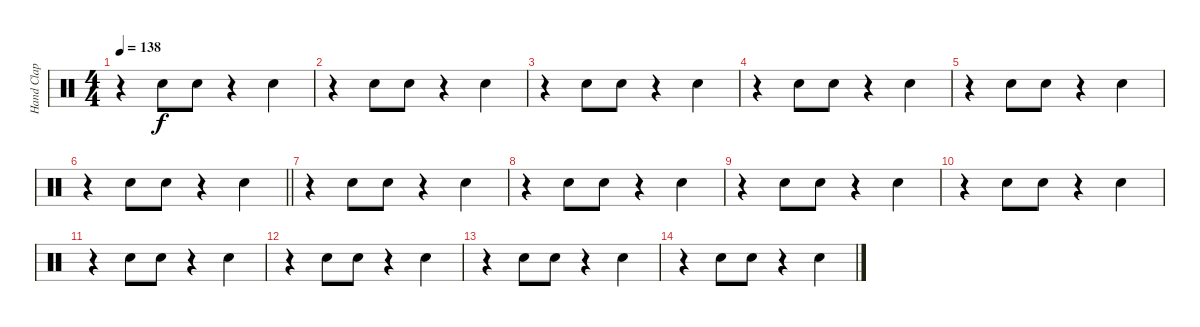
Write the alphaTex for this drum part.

\track ("Hand Clap" "Hand Clap") {instrument percussion}
\staff {score}
\articulation defaults
\ts (4 4)
\tempo 138
\clef neutral
\ks c
r.4{dy f} "Hand Clap (hit)".8 "Hand Clap (hit)".8 r.4 "Hand Clap (hit)".4 |
r.4 "Hand Clap (hit)".8 "Hand Clap (hit)".8 r.4 "Hand Clap (hit)".4 |
r.4 "Hand Clap (hit)".8 "Hand Clap (hit)".8 r.4 "Hand Clap (hit)".4 |
r.4 "Hand Clap (hit)".8 "Hand Clap (hit)".8 r.4 "Hand Clap (hit)".4 |
r.4 "Hand Clap (hit)".8 "Hand Clap (hit)".8 r.4 "Hand Clap (hit)".4 |
\barLineRight lightlight
r.4 "Hand Clap (hit)".8 "Hand Clap (hit)".8 r.4 "Hand Clap (hit)".4 |
r.4 "Hand Clap (hit)".8 "Hand Clap (hit)".8 r.4 "Hand Clap (hit)".4 |
r.4 "Hand Clap (hit)".8 "Hand Clap (hit)".8 r.4 "Hand Clap (hit)".4 |
r.4 "Hand Clap (hit)".8 "Hand Clap (hit)".8 r.4 "Hand Clap (hit)".4 |
r.4 "Hand Clap (hit)".8 "Hand Clap (hit)".8 r.4 "Hand Clap (hit)".4 |
r.4 "Hand Clap (hit)".8 "Hand Clap (hit)".8 r.4 "Hand Clap (hit)".4 |
r.4 "Hand Clap (hit)".8 "Hand Clap (hit)".8 r.4 "Hand Clap (hit)".4 |
r.4 "Hand Clap (hit)".8 "Hand Clap (hit)".8 r.4 "Hand Clap (hit)".4 |
r.4 "Hand Clap (hit)".8 "Hand Clap (hit)".8 r.4 "Hand Clap (hit)".4
